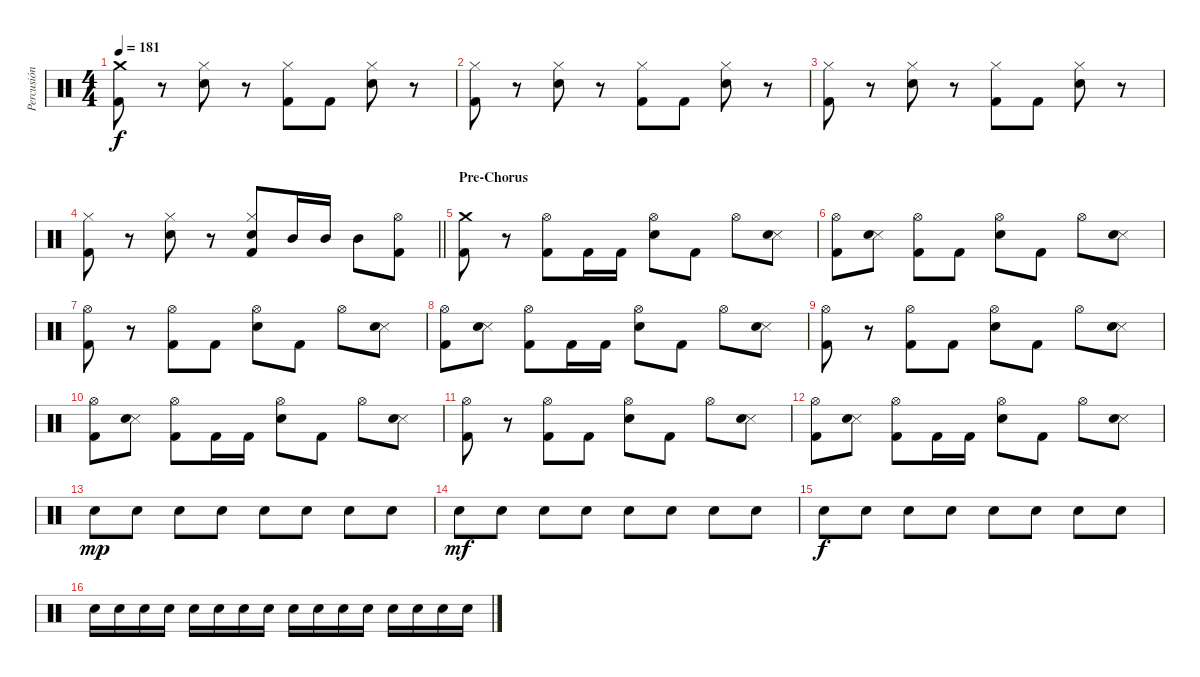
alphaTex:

\track ("Percusión" "Percusión") {instrument percussion}
\staff {score}
\articulation defaults
\ts (4 4)
\tempo 181
\clef neutral
\ks c
("Crash medium (hit)" "Kick (hit) 2").8{dy f} r.8 ("Hi-Hat (closed)" "Electric Snare (hit)").8 r.8 ("Hi-Hat (closed)" "Kick (hit) 2").8 "Kick (hit) 2".8 ("Hi-Hat (closed)" "Electric Snare (hit)").8 r.8 |
("Hi-Hat (closed)" "Kick (hit) 2").8 r.8 ("Hi-Hat (closed)" "Electric Snare (hit)").8 r.8 ("Hi-Hat (closed)" "Kick (hit) 2").8 "Kick (hit) 2".8 ("Hi-Hat (closed)" "Electric Snare (hit)").8 r.8 |
("Hi-Hat (closed)" "Kick (hit) 2").8 r.8 ("Hi-Hat (closed)" "Electric Snare (hit)").8 r.8 ("Hi-Hat (closed)" "Kick (hit) 2").8 "Kick (hit) 2".8 ("Hi-Hat (closed)" "Electric Snare (hit)").8 r.8 |
\barLineRight lightlight
("Hi-Hat (closed)" "Kick (hit) 2").8 r.8 ("Hi-Hat (closed)" "Electric Snare (hit)").8 r.8 ("Hi-Hat (closed)" "Electric Snare (hit)" "Kick (hit) 2").8 "Mid Tom (hit)".16 "Mid Tom (hit)".16 "Mid Tom (hit)".8 ("Hi-Hat (open)" "Kick (hit) 2").8 |
\section ("" "Pre-Chorus")
("Crash medium (hit)" "Kick (hit) 2").8 r.8 ("Hi-Hat (open)" "Kick (hit) 2").8 "Kick (hit) 2".16 "Kick (hit) 2".16 ("Hi-Hat (open)" "Electric Snare (hit)").8 "Kick (hit) 2".8 "Hi-Hat (open)".8 ("Metronome (hit)" "Electric Snare (hit)").8 |
("Hi-Hat (open)" "Kick (hit) 2").8 ("Metronome (hit)" "Electric Snare (hit)").8 ("Hi-Hat (open)" "Kick (hit) 2").8 "Kick (hit) 2".8 ("Hi-Hat (open)" "Electric Snare (hit)").8 "Kick (hit) 2".8 "Hi-Hat (open)".8 ("Metronome (hit)" "Electric Snare (hit)").8 |
("Hi-Hat (open)" "Kick (hit) 2").8 r.8 ("Hi-Hat (open)" "Kick (hit) 2").8 "Kick (hit) 2".8 ("Hi-Hat (open)" "Electric Snare (hit)").8 "Kick (hit) 2".8 "Hi-Hat (open)".8 ("Metronome (hit)" "Electric Snare (hit)").8 |
("Hi-Hat (open)" "Kick (hit) 2").8 ("Metronome (hit)" "Electric Snare (hit)").8 ("Hi-Hat (open)" "Kick (hit) 2").8 "Kick (hit) 2".16 "Kick (hit) 2".16 ("Hi-Hat (open)" "Electric Snare (hit)").8 "Kick (hit) 2".8 "Hi-Hat (open)".8 ("Metronome (hit)" "Electric Snare (hit)").8 |
("Hi-Hat (open)" "Kick (hit) 2").8 r.8 ("Hi-Hat (open)" "Kick (hit) 2").8 "Kick (hit) 2".8 ("Hi-Hat (open)" "Electric Snare (hit)").8 "Kick (hit) 2".8 "Hi-Hat (open)".8 ("Metronome (hit)" "Electric Snare (hit)").8 |
("Hi-Hat (open)" "Kick (hit) 2").8 ("Metronome (hit)" "Electric Snare (hit)").8 ("Hi-Hat (open)" "Kick (hit) 2").8 "Kick (hit) 2".16 "Kick (hit) 2".16 ("Hi-Hat (open)" "Electric Snare (hit)").8 "Kick (hit) 2".8 "Hi-Hat (open)".8 ("Metronome (hit)" "Electric Snare (hit)").8 |
("Hi-Hat (open)" "Kick (hit) 2").8 r.8 ("Hi-Hat (open)" "Kick (hit) 2").8 "Kick (hit) 2".8 ("Hi-Hat (open)" "Electric Snare (hit)").8 "Kick (hit) 2".8 "Hi-Hat (open)".8 ("Metronome (hit)" "Electric Snare (hit)").8 |
("Hi-Hat (open)" "Kick (hit) 2").8 ("Metronome (hit)" "Electric Snare (hit)").8 ("Hi-Hat (open)" "Kick (hit) 2").8 "Kick (hit) 2".16 "Kick (hit) 2".16 ("Hi-Hat (open)" "Electric Snare (hit)").8 "Kick (hit) 2".8 "Hi-Hat (open)".8 ("Metronome (hit)" "Electric Snare (hit)").8 |
"Electric Snare (hit)".8{dy mp} "Electric Snare (hit)".8 "Electric Snare (hit)".8 "Electric Snare (hit)".8 "Electric Snare (hit)".8 "Electric Snare (hit)".8 "Electric Snare (hit)".8 "Electric Snare (hit)".8 |
"Electric Snare (hit)".8{dy mf} "Electric Snare (hit)".8 "Electric Snare (hit)".8 "Electric Snare (hit)".8 "Electric Snare (hit)".8 "Electric Snare (hit)".8 "Electric Snare (hit)".8 "Electric Snare (hit)".8 |
"Electric Snare (hit)".8{dy f} "Electric Snare (hit)".8 "Electric Snare (hit)".8 "Electric Snare (hit)".8 "Electric Snare (hit)".8 "Electric Snare (hit)".8 "Electric Snare (hit)".8 "Electric Snare (hit)".8 |
"Electric Snare (hit)".16 "Electric Snare (hit)".16 "Electric Snare (hit)".16 "Electric Snare (hit)".16 "Electric Snare (hit)".16 "Electric Snare (hit)".16 "Electric Snare (hit)".16 "Electric Snare (hit)".16 "Electric Snare (hit)".16 "Electric Snare (hit)".16 "Electric Snare (hit)".16 "Electric Snare (hit)".16 "Electric Snare (hit)".16 "Electric Snare (hit)".16 "Electric Snare (hit)".16 "Electric Snare (hit)".16
